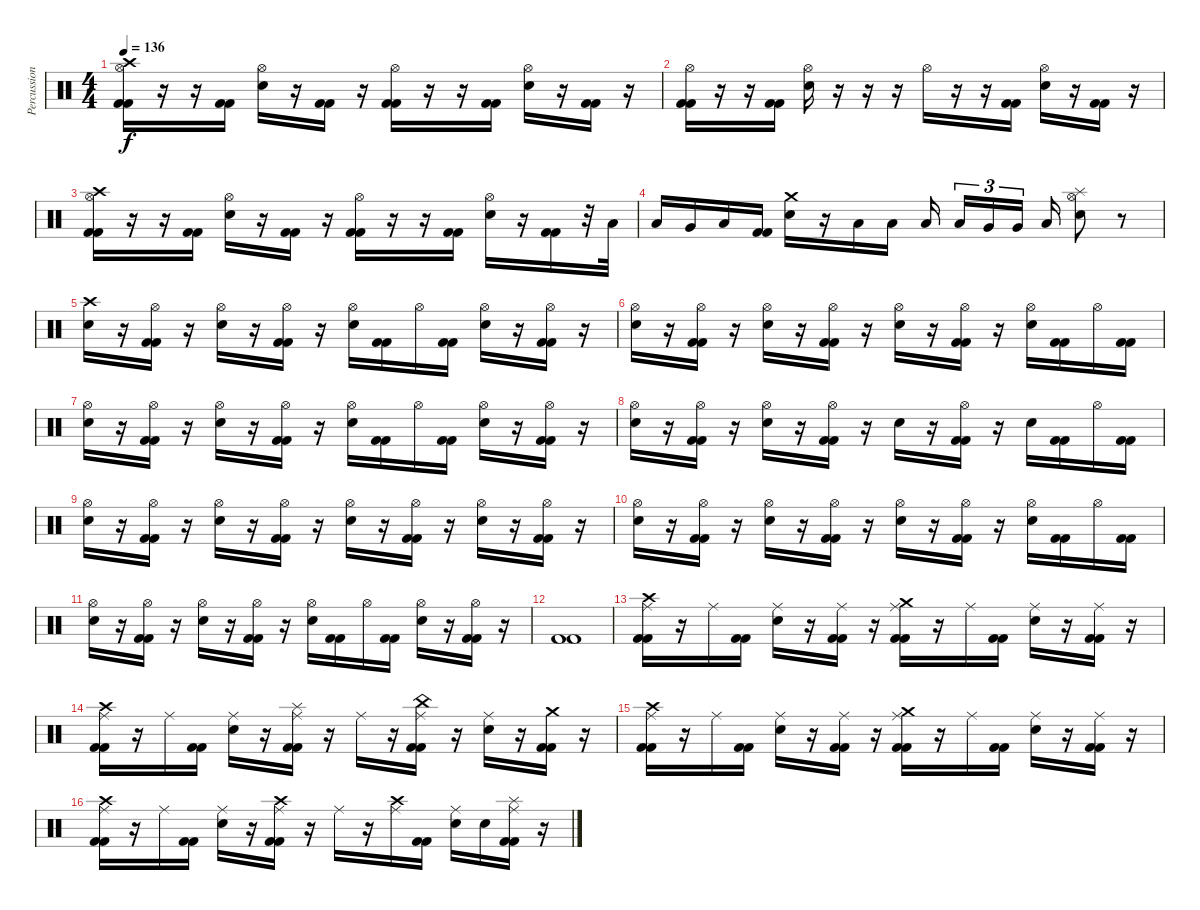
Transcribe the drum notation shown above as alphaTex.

\track ("Percussion" "Percussion") {instrument percussion}
\staff {score}
\articulation defaults
\ts (4 4)
\tempo 136
\clef neutral
\ks c
("Hi-Hat (open)" "Crash high (hit)" "Kick (hit) 2" "Kick (hit) 2").16{dy f} r.16 r.16 ("Kick (hit) 2" "Kick (hit) 2").16 ("Hi-Hat (open)" "Electric Snare (hit)").16 r.16 ("Kick (hit) 2" "Kick (hit) 2").16 r.16 ("Hi-Hat (open)" "Kick (hit) 2" "Kick (hit) 2").16 r.16 r.16 ("Kick (hit) 2" "Kick (hit) 2").16 ("Hi-Hat (open)" "Electric Snare (hit)").16 r.16 ("Kick (hit) 2" "Kick (hit) 2").16 r.16 |
("Hi-Hat (open)" "Kick (hit) 2" "Kick (hit) 2").16 r.16 r.16 ("Kick (hit) 2" "Kick (hit) 2").16 ("Hi-Hat (open)" "Electric Snare (hit)").16 r.16 r.16 r.16 "Hi-Hat (open)".16 r.16 r.16 ("Kick (hit) 2" "Kick (hit) 2").16 ("Hi-Hat (open)" "Electric Snare (hit)").16 r.16 ("Kick (hit) 2" "Kick (hit) 2").16 r.16 |
("Hi-Hat (open)" "Crash high (hit)" "Kick (hit) 2" "Kick (hit) 2").16 r.16 r.16 ("Kick (hit) 2" "Kick (hit) 2").16 ("Hi-Hat (open)" "Electric Snare (hit)").16 r.16 ("Kick (hit) 2" "Kick (hit) 2").16 r.16 ("Hi-Hat (open)" "Kick (hit) 2" "Kick (hit) 2").16 r.16 r.16 ("Kick (hit) 2" "Kick (hit) 2").16 ("Hi-Hat (open)" "Electric Snare (hit)").16 r.16 ("Kick (hit) 2" "Kick (hit) 2").16 r.32 "Low Tom (hit)".32 |
"Low Tom (hit)".16 "Very Low Tom (hit)".16 "Low Floor Tom (hit)".16 ("Kick (hit) 2" "Kick (hit) 2").16 ("Crash medium (hit)" "Electric Snare (hit)").16 r.16 "Low Tom (hit)".16 "Low Tom (hit)".16 "Low Tom (hit)".16 "Low Tom (hit)".16{tu (3 2)} "Very Low Tom (hit)".16{tu (3 2)} "Very Low Tom (hit)".16{tu (3 2)} "Low Floor Tom (hit)".16 ("Splash (hit)" "Hi-Hat (open)" "Electric Snare (hit)").8 r.8 |
("Crash high (hit)" "Electric Snare (hit)").16 r.16 ("Hi-Hat (open)" "Kick (hit) 2" "Kick (hit) 2").16 r.16 ("Hi-Hat (open)" "Electric Snare (hit)").16 r.16 ("Hi-Hat (open)" "Kick (hit) 2" "Kick (hit) 2").16 r.16 ("Hi-Hat (open)" "Electric Snare (hit)").16 ("Kick (hit) 2" "Kick (hit) 2").16 "Hi-Hat (open)".16 ("Kick (hit) 2" "Kick (hit) 2").16 ("Hi-Hat (open)" "Electric Snare (hit)").16 r.16 ("Hi-Hat (open)" "Kick (hit) 2" "Kick (hit) 2").16 r.16 |
("Hi-Hat (open)" "Electric Snare (hit)").16 r.16 ("Hi-Hat (open)" "Kick (hit) 2" "Kick (hit) 2").16 r.16 ("Hi-Hat (open)" "Electric Snare (hit)").16 r.16 ("Hi-Hat (open)" "Kick (hit) 2" "Kick (hit) 2").16 r.16 ("Hi-Hat (open)" "Electric Snare (hit)").16 r.16 ("Hi-Hat (open)" "Kick (hit) 2" "Kick (hit) 2").16 r.16 ("Hi-Hat (open)" "Electric Snare (hit)").16 ("Kick (hit) 2" "Kick (hit) 2").16 "Hi-Hat (open)".16 ("Kick (hit) 2" "Kick (hit) 2").16 |
("Hi-Hat (open)" "Electric Snare (hit)").16 r.16 ("Hi-Hat (open)" "Kick (hit) 2" "Kick (hit) 2").16 r.16 ("Hi-Hat (open)" "Electric Snare (hit)").16 r.16 ("Hi-Hat (open)" "Kick (hit) 2" "Kick (hit) 2").16 r.16 ("Hi-Hat (open)" "Electric Snare (hit)").16 ("Kick (hit) 2" "Kick (hit) 2").16 "Hi-Hat (open)".16 ("Kick (hit) 2" "Kick (hit) 2").16 ("Hi-Hat (open)" "Electric Snare (hit)").16 r.16 ("Hi-Hat (open)" "Kick (hit) 2" "Kick (hit) 2").16 r.16 |
("Hi-Hat (open)" "Electric Snare (hit)").16 r.16 ("Hi-Hat (open)" "Kick (hit) 2" "Kick (hit) 2").16 r.16 ("Hi-Hat (open)" "Electric Snare (hit)").16 r.16 ("Hi-Hat (open)" "Kick (hit) 2" "Kick (hit) 2").16 r.16 "Electric Snare (hit)".16 r.16 ("Hi-Hat (open)" "Kick (hit) 2" "Kick (hit) 2").16 r.16 "Electric Snare (hit)".16 ("Kick (hit) 2" "Kick (hit) 2").16 "Hi-Hat (open)".16 ("Kick (hit) 2" "Kick (hit) 2").16 |
("Hi-Hat (open)" "Electric Snare (hit)").16 r.16 ("Hi-Hat (open)" "Kick (hit) 2" "Kick (hit) 2").16 r.16 ("Hi-Hat (open)" "Electric Snare (hit)").16 r.16 ("Hi-Hat (open)" "Kick (hit) 2" "Kick (hit) 2").16 r.16 ("Hi-Hat (open)" "Electric Snare (hit)").16 r.16 ("Hi-Hat (open)" "Kick (hit) 2" "Kick (hit) 2").16 r.16 ("Hi-Hat (open)" "Electric Snare (hit)").16 r.16 ("Hi-Hat (open)" "Kick (hit) 2" "Kick (hit) 2").16 r.16 |
("Hi-Hat (open)" "Electric Snare (hit)").16 r.16 ("Hi-Hat (open)" "Kick (hit) 2" "Kick (hit) 2").16 r.16 ("Hi-Hat (open)" "Electric Snare (hit)").16 r.16 ("Hi-Hat (open)" "Kick (hit) 2" "Kick (hit) 2").16 r.16 ("Hi-Hat (open)" "Electric Snare (hit)").16 r.16 ("Hi-Hat (open)" "Kick (hit) 2" "Kick (hit) 2").16 r.16 ("Hi-Hat (open)" "Electric Snare (hit)").16 ("Kick (hit) 2" "Kick (hit) 2").16 "Hi-Hat (open)".16 ("Kick (hit) 2" "Kick (hit) 2").16 |
("Hi-Hat (open)" "Electric Snare (hit)").16 r.16 ("Hi-Hat (open)" "Kick (hit) 2" "Kick (hit) 2").16 r.16 ("Hi-Hat (open)" "Electric Snare (hit)").16 r.16 ("Hi-Hat (open)" "Kick (hit) 2" "Kick (hit) 2").16 r.16 ("Hi-Hat (open)" "Electric Snare (hit)").16 ("Kick (hit) 2" "Kick (hit) 2").16 "Hi-Hat (open)".16 ("Kick (hit) 2" "Kick (hit) 2").16 ("Hi-Hat (open)" "Electric Snare (hit)").16 r.16 ("Hi-Hat (open)" "Kick (hit) 2" "Kick (hit) 2").16 r.16 |
("Kick (hit) 2" "Kick (hit) 2").1 |
("Ride (middle)" "Crash high (hit)" "Kick (hit) 2" "Kick (hit) 2").16 r.16 "Ride (middle)".16 ("Kick (hit) 2" "Kick (hit) 2").16 ("Ride (middle)" "Electric Snare (hit)").16 r.16 ("Ride (middle)" "Kick (hit) 2" "Kick (hit) 2").16 r.16 ("Ride (middle)" "Crash medium (hit)" "Kick (hit) 2" "Kick (hit) 2").16 r.16 "Ride (middle)".16 ("Kick (hit) 2" "Kick (hit) 2").16 ("Ride (middle)" "Electric Snare (hit)").16 r.16 ("Ride (middle)" "Kick (hit) 2" "Kick (hit) 2").16 r.16 |
("Ride (middle)" "Crash high (hit)" "Kick (hit) 2" "Kick (hit) 2").16 r.16 "Ride (middle)".16 ("Kick (hit) 2" "Kick (hit) 2").16 ("Ride (middle)" "Electric Snare (hit)").16 r.16 ("Ride (middle)" "Splash (hit)" "Kick (hit) 2" "Kick (hit) 2").16 r.16 "Ride (middle)".16 r.16 ("Ride (middle)" "China (hit)" "Kick (hit) 2" "Kick (hit) 2").16 r.16 ("Ride (middle)" "Electric Snare (hit)").16 r.16 ("Crash medium (hit)" "Kick (hit) 2" "Kick (hit) 2").16 r.16 |
("Ride (middle)" "Crash high (hit)" "Kick (hit) 2" "Kick (hit) 2").16 r.16 "Ride (middle)".16 ("Kick (hit) 2" "Kick (hit) 2").16 ("Ride (middle)" "Electric Snare (hit)").16 r.16 ("Ride (middle)" "Kick (hit) 2" "Kick (hit) 2").16 r.16 ("Ride (middle)" "Crash medium (hit)" "Kick (hit) 2" "Kick (hit) 2").16 r.16 "Ride (middle)".16 ("Kick (hit) 2" "Kick (hit) 2").16 ("Ride (middle)" "Electric Snare (hit)").16 r.16 ("Ride (middle)" "Kick (hit) 2" "Kick (hit) 2").16 r.16 |
("Ride (middle)" "Crash high (hit)" "Kick (hit) 2" "Kick (hit) 2").16 r.16 "Ride (middle)".16 ("Kick (hit) 2" "Kick (hit) 2").16 ("Ride (middle)" "Electric Snare (hit)").16 r.16 ("Ride (middle)" "Crash high (hit)" "Kick (hit) 2" "Kick (hit) 2").16 r.16 "Ride (middle)".16 r.16 ("Ride (middle)" "Crash high (hit)").16 ("Kick (hit) 2" "Kick (hit) 2").16 ("Ride (middle)" "Electric Snare (hit)").16 "Electric Snare (hit)".16 ("Ride (middle)" "Splash (hit)" "Kick (hit) 2" "Kick (hit) 2").16 r.16
